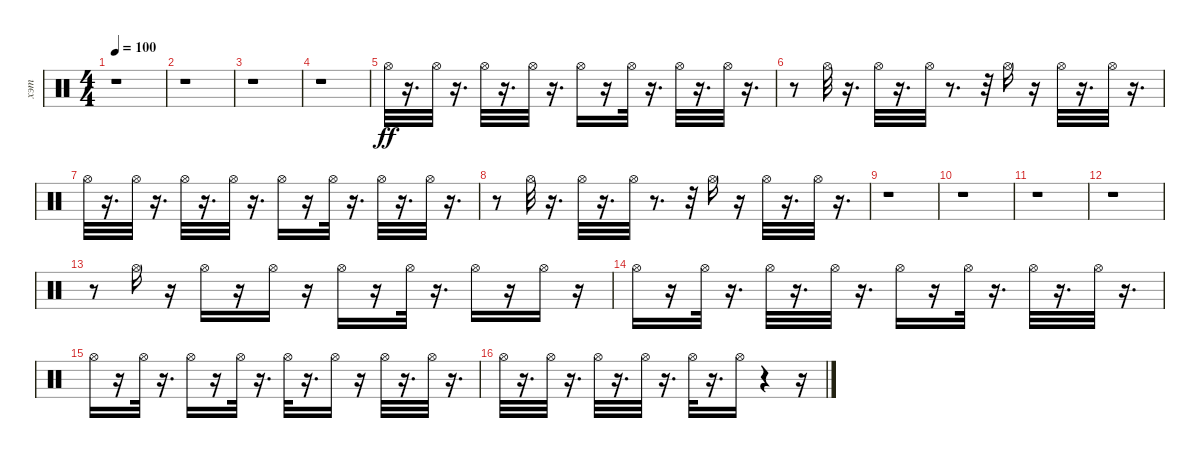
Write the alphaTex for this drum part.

\track ("хэт" "хэт") {instrument percussion}
\staff {score}
\articulation defaults
\ts (4 4)
\tempo 100
\clef neutral
\ks c
r.1{dy ff} |
r.1 |
r.1 |
r.1 |
"Hi-Hat (open)".32 r.16{d} "Hi-Hat (open)".32 r.16{d} "Hi-Hat (open)".32 r.16{d} "Hi-Hat (open)".32 r.16{d} "Hi-Hat (open)".16 r.16 "Hi-Hat (open)".32 r.16{d} "Hi-Hat (open)".32 r.16{d} "Hi-Hat (open)".32 r.16{d} |
r.8 "Hi-Hat (open)".32 r.16{d} "Hi-Hat (open)".32 r.16{d} "Hi-Hat (open)".32 r.8{d} r.32 "Hi-Hat (open)".16 r.16 "Hi-Hat (open)".32 r.16{d} "Hi-Hat (open)".32 r.16{d} |
"Hi-Hat (open)".32 r.16{d} "Hi-Hat (open)".32 r.16{d} "Hi-Hat (open)".32 r.16{d} "Hi-Hat (open)".32 r.16{d} "Hi-Hat (open)".16 r.16 "Hi-Hat (open)".32 r.16{d} "Hi-Hat (open)".32 r.16{d} "Hi-Hat (open)".32 r.16{d} |
r.8 "Hi-Hat (open)".32 r.16{d} "Hi-Hat (open)".32 r.16{d} "Hi-Hat (open)".32 r.8{d} r.32 "Hi-Hat (open)".16 r.16 "Hi-Hat (open)".32 r.16{d} "Hi-Hat (open)".32 r.16{d} |
r.1 |
r.1 |
r.1 |
r.1 |
r.8 "Hi-Hat (open)".16 r.16 "Hi-Hat (open)".16 r.16 "Hi-Hat (open)".16 r.16 "Hi-Hat (open)".16 r.16 "Hi-Hat (open)".32 r.16{d} "Hi-Hat (open)".16 r.16 "Hi-Hat (open)".16 r.16 |
"Hi-Hat (open)".16 r.16 "Hi-Hat (open)".32 r.16{d} "Hi-Hat (open)".32 r.16{d} "Hi-Hat (open)".32 r.16{d} "Hi-Hat (open)".16 r.16 "Hi-Hat (open)".32 r.16{d} "Hi-Hat (open)".32 r.16{d} "Hi-Hat (open)".32 r.16{d} |
"Hi-Hat (open)".16 r.16 "Hi-Hat (open)".32 r.16{d} "Hi-Hat (open)".16 r.16 "Hi-Hat (open)".32 r.16{d} "Hi-Hat (open)".32 r.16{d} "Hi-Hat (open)".16 r.16 "Hi-Hat (open)".32 r.16{d} "Hi-Hat (open)".32 r.16{d} |
"Hi-Hat (open)".32 r.16{d} "Hi-Hat (open)".32 r.16{d} "Hi-Hat (open)".32 r.16{d} "Hi-Hat (open)".32 r.16{d} "Hi-Hat (open)".32 r.16{d} "Hi-Hat (open)".16 r.4 r.16
